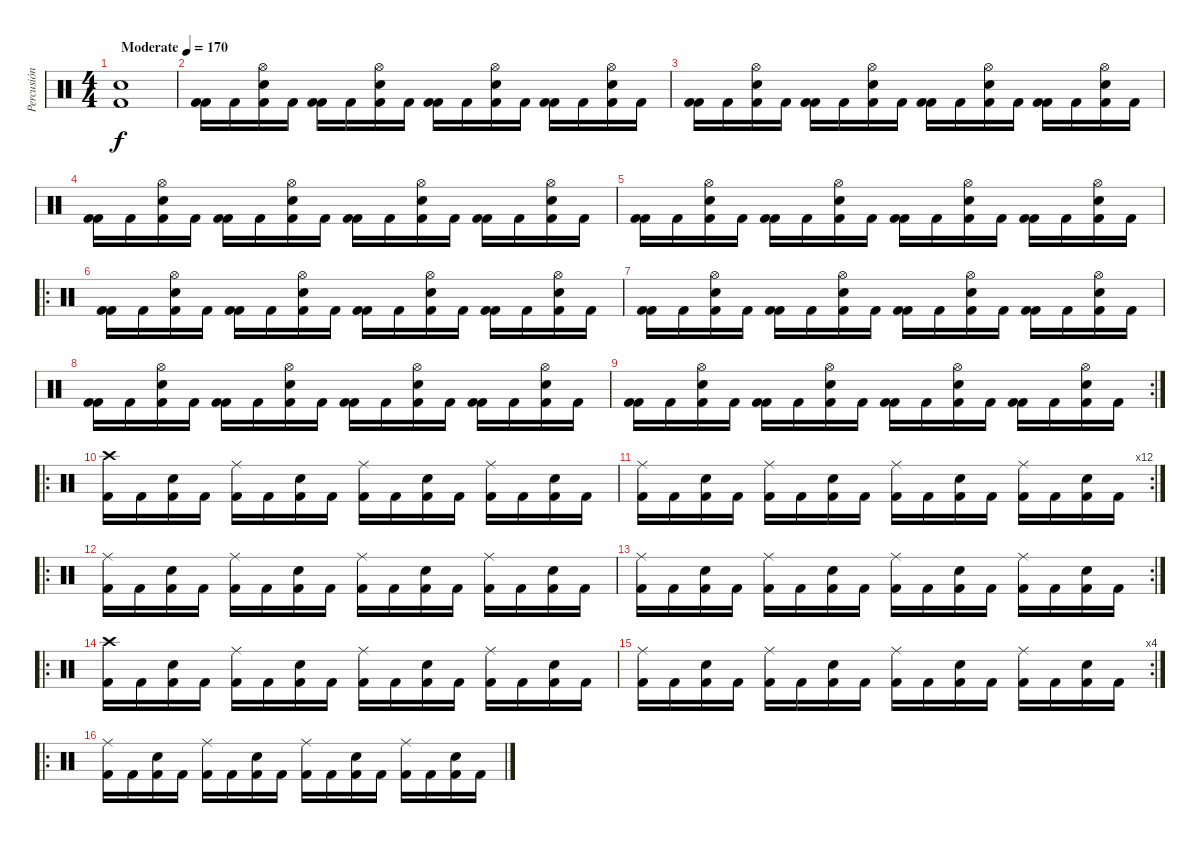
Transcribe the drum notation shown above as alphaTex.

\track ("Percusión" "Percusión") {instrument percussion}
\staff {score}
\articulation defaults
\ts (4 4)
\tempo (170 "Moderate")
\clef neutral
\ks c
("Snare (hit) 2" "Kick (hit) 2").1{dy f} |
("Kick (hit) 2" "Kick (hit) 2").16 "Kick (hit) 2".16 ("Kick (hit) 2" "Snare (hit) 2" "Hi-Hat (open)").16 "Kick (hit) 2".16 ("Kick (hit) 2" "Kick (hit) 2").16 "Kick (hit) 2".16 ("Kick (hit) 2" "Snare (hit) 2" "Hi-Hat (open)").16 "Kick (hit) 2".16 ("Kick (hit) 2" "Kick (hit) 2").16 "Kick (hit) 2".16 ("Kick (hit) 2" "Snare (hit) 2" "Hi-Hat (open)").16 "Kick (hit) 2".16 ("Kick (hit) 2" "Kick (hit) 2").16 "Kick (hit) 2".16 ("Kick (hit) 2" "Snare (hit) 2" "Hi-Hat (open)").16 "Kick (hit) 2".16 |
("Kick (hit) 2" "Kick (hit) 2").16 "Kick (hit) 2".16 ("Kick (hit) 2" "Snare (hit) 2" "Hi-Hat (open)").16 "Kick (hit) 2".16 ("Kick (hit) 2" "Kick (hit) 2").16 "Kick (hit) 2".16 ("Kick (hit) 2" "Snare (hit) 2" "Hi-Hat (open)").16 "Kick (hit) 2".16 ("Kick (hit) 2" "Kick (hit) 2").16 "Kick (hit) 2".16 ("Kick (hit) 2" "Snare (hit) 2" "Hi-Hat (open)").16 "Kick (hit) 2".16 ("Kick (hit) 2" "Kick (hit) 2").16 "Kick (hit) 2".16 ("Kick (hit) 2" "Snare (hit) 2" "Hi-Hat (open)").16 "Kick (hit) 2".16 |
("Kick (hit) 2" "Kick (hit) 2").16 "Kick (hit) 2".16 ("Kick (hit) 2" "Snare (hit) 2" "Hi-Hat (open)").16 "Kick (hit) 2".16 ("Kick (hit) 2" "Kick (hit) 2").16 "Kick (hit) 2".16 ("Kick (hit) 2" "Snare (hit) 2" "Hi-Hat (open)").16 "Kick (hit) 2".16 ("Kick (hit) 2" "Kick (hit) 2").16 "Kick (hit) 2".16 ("Kick (hit) 2" "Snare (hit) 2" "Hi-Hat (open)").16 "Kick (hit) 2".16 ("Kick (hit) 2" "Kick (hit) 2").16 "Kick (hit) 2".16 ("Kick (hit) 2" "Snare (hit) 2" "Hi-Hat (open)").16 "Kick (hit) 2".16 |
("Kick (hit) 2" "Kick (hit) 2").16 "Kick (hit) 2".16 ("Kick (hit) 2" "Snare (hit) 2" "Hi-Hat (open)").16 "Kick (hit) 2".16 ("Kick (hit) 2" "Kick (hit) 2").16 "Kick (hit) 2".16 ("Kick (hit) 2" "Snare (hit) 2" "Hi-Hat (open)").16 "Kick (hit) 2".16 ("Kick (hit) 2" "Kick (hit) 2").16 "Kick (hit) 2".16 ("Kick (hit) 2" "Snare (hit) 2" "Hi-Hat (open)").16 "Kick (hit) 2".16 ("Kick (hit) 2" "Kick (hit) 2").16 "Kick (hit) 2".16 ("Kick (hit) 2" "Snare (hit) 2" "Hi-Hat (open)").16 "Kick (hit) 2".16 |
\ro
("Kick (hit) 2" "Kick (hit) 2").16 "Kick (hit) 2".16 ("Kick (hit) 2" "Snare (hit) 2" "Hi-Hat (open)").16 "Kick (hit) 2".16 ("Kick (hit) 2" "Kick (hit) 2").16 "Kick (hit) 2".16 ("Kick (hit) 2" "Snare (hit) 2" "Hi-Hat (open)").16 "Kick (hit) 2".16 ("Kick (hit) 2" "Kick (hit) 2").16 "Kick (hit) 2".16 ("Kick (hit) 2" "Snare (hit) 2" "Hi-Hat (open)").16 "Kick (hit) 2".16 ("Kick (hit) 2" "Kick (hit) 2").16 "Kick (hit) 2".16 ("Kick (hit) 2" "Snare (hit) 2" "Hi-Hat (open)").16 "Kick (hit) 2".16 |
("Kick (hit) 2" "Kick (hit) 2").16 "Kick (hit) 2".16 ("Kick (hit) 2" "Snare (hit) 2" "Hi-Hat (open)").16 "Kick (hit) 2".16 ("Kick (hit) 2" "Kick (hit) 2").16 "Kick (hit) 2".16 ("Kick (hit) 2" "Snare (hit) 2" "Hi-Hat (open)").16 "Kick (hit) 2".16 ("Kick (hit) 2" "Kick (hit) 2").16 "Kick (hit) 2".16 ("Kick (hit) 2" "Snare (hit) 2" "Hi-Hat (open)").16 "Kick (hit) 2".16 ("Kick (hit) 2" "Kick (hit) 2").16 "Kick (hit) 2".16 ("Kick (hit) 2" "Snare (hit) 2" "Hi-Hat (open)").16 "Kick (hit) 2".16 |
("Kick (hit) 2" "Kick (hit) 2").16 "Kick (hit) 2".16 ("Kick (hit) 2" "Snare (hit) 2" "Hi-Hat (open)").16 "Kick (hit) 2".16 ("Kick (hit) 2" "Kick (hit) 2").16 "Kick (hit) 2".16 ("Kick (hit) 2" "Snare (hit) 2" "Hi-Hat (open)").16 "Kick (hit) 2".16 ("Kick (hit) 2" "Kick (hit) 2").16 "Kick (hit) 2".16 ("Kick (hit) 2" "Snare (hit) 2" "Hi-Hat (open)").16 "Kick (hit) 2".16 ("Kick (hit) 2" "Kick (hit) 2").16 "Kick (hit) 2".16 ("Kick (hit) 2" "Snare (hit) 2" "Hi-Hat (open)").16 "Kick (hit) 2".16 |
\rc 2
("Kick (hit) 2" "Kick (hit) 2").16 "Kick (hit) 2".16 ("Kick (hit) 2" "Snare (hit) 2" "Hi-Hat (open)").16 "Kick (hit) 2".16 ("Kick (hit) 2" "Kick (hit) 2").16 "Kick (hit) 2".16 ("Kick (hit) 2" "Snare (hit) 2" "Hi-Hat (open)").16 "Kick (hit) 2".16 ("Kick (hit) 2" "Kick (hit) 2").16 "Kick (hit) 2".16 ("Kick (hit) 2" "Snare (hit) 2" "Hi-Hat (open)").16 "Kick (hit) 2".16 ("Kick (hit) 2" "Kick (hit) 2").16 "Kick (hit) 2".16 ("Kick (hit) 2" "Snare (hit) 2" "Hi-Hat (open)").16 "Kick (hit) 2".16 |
\ro
("Kick (hit) 2" "Crash high (hit)").16 "Kick (hit) 2".16 ("Kick (hit) 2" "Snare (hit) 2").16 "Kick (hit) 2".16 ("Kick (hit) 2" "Ride (middle)").16 "Kick (hit) 2".16 ("Kick (hit) 2" "Snare (hit) 2").16 "Kick (hit) 2".16 ("Kick (hit) 2" "Ride (middle)").16 "Kick (hit) 2".16 ("Kick (hit) 2" "Snare (hit) 2").16 "Kick (hit) 2".16 ("Kick (hit) 2" "Ride (middle)").16 "Kick (hit) 2".16 ("Kick (hit) 2" "Snare (hit) 2").16 "Kick (hit) 2".16 |
\rc 12
("Kick (hit) 2" "Ride (middle)").16 "Kick (hit) 2".16 ("Kick (hit) 2" "Snare (hit) 2").16 "Kick (hit) 2".16 ("Kick (hit) 2" "Ride (middle)").16 "Kick (hit) 2".16 ("Kick (hit) 2" "Snare (hit) 2").16 "Kick (hit) 2".16 ("Kick (hit) 2" "Ride (middle)").16 "Kick (hit) 2".16 ("Kick (hit) 2" "Snare (hit) 2").16 "Kick (hit) 2".16 ("Kick (hit) 2" "Ride (middle)").16 "Kick (hit) 2".16 ("Kick (hit) 2" "Snare (hit) 2").16 "Kick (hit) 2".16 |
\ro
("Kick (hit) 2" "Ride (middle)").16 "Kick (hit) 2".16 ("Kick (hit) 2" "Snare (hit) 2").16 "Kick (hit) 2".16 ("Kick (hit) 2" "Ride (middle)").16 "Kick (hit) 2".16 ("Kick (hit) 2" "Snare (hit) 2").16 "Kick (hit) 2".16 ("Kick (hit) 2" "Ride (middle)").16 "Kick (hit) 2".16 ("Kick (hit) 2" "Snare (hit) 2").16 "Kick (hit) 2".16 ("Kick (hit) 2" "Ride (middle)").16 "Kick (hit) 2".16 ("Kick (hit) 2" "Snare (hit) 2").16 "Kick (hit) 2".16 |
\rc 2
("Kick (hit) 2" "Ride (middle)").16 "Kick (hit) 2".16 ("Kick (hit) 2" "Snare (hit) 2").16 "Kick (hit) 2".16 ("Kick (hit) 2" "Ride (middle)").16 "Kick (hit) 2".16 ("Kick (hit) 2" "Snare (hit) 2").16 "Kick (hit) 2".16 ("Kick (hit) 2" "Ride (middle)").16 "Kick (hit) 2".16 ("Kick (hit) 2" "Snare (hit) 2").16 "Kick (hit) 2".16 ("Kick (hit) 2" "Ride (middle)").16 "Kick (hit) 2".16 ("Kick (hit) 2" "Snare (hit) 2").16 "Kick (hit) 2".16 |
\ro
("Kick (hit) 2" "Crash high (hit)").16 "Kick (hit) 2".16 ("Kick (hit) 2" "Snare (hit) 2").16 "Kick (hit) 2".16 ("Kick (hit) 2" "Ride (middle)").16 "Kick (hit) 2".16 ("Kick (hit) 2" "Snare (hit) 2").16 "Kick (hit) 2".16 ("Kick (hit) 2" "Ride (middle)").16 "Kick (hit) 2".16 ("Kick (hit) 2" "Snare (hit) 2").16 "Kick (hit) 2".16 ("Kick (hit) 2" "Ride (middle)").16 "Kick (hit) 2".16 ("Kick (hit) 2" "Snare (hit) 2").16 "Kick (hit) 2".16 |
\rc 4
("Kick (hit) 2" "Ride (middle)").16 "Kick (hit) 2".16 ("Kick (hit) 2" "Snare (hit) 2").16 "Kick (hit) 2".16 ("Kick (hit) 2" "Ride (middle)").16 "Kick (hit) 2".16 ("Kick (hit) 2" "Snare (hit) 2").16 "Kick (hit) 2".16 ("Kick (hit) 2" "Ride (middle)").16 "Kick (hit) 2".16 ("Kick (hit) 2" "Snare (hit) 2").16 "Kick (hit) 2".16 ("Kick (hit) 2" "Ride (middle)").16 "Kick (hit) 2".16 ("Kick (hit) 2" "Snare (hit) 2").16 "Kick (hit) 2".16 |
\ro
("Kick (hit) 2" "Ride (middle)").16 "Kick (hit) 2".16 ("Kick (hit) 2" "Snare (hit) 2").16 "Kick (hit) 2".16 ("Kick (hit) 2" "Ride (middle)").16 "Kick (hit) 2".16 ("Kick (hit) 2" "Snare (hit) 2").16 "Kick (hit) 2".16 ("Kick (hit) 2" "Ride (middle)").16 "Kick (hit) 2".16 ("Kick (hit) 2" "Snare (hit) 2").16 "Kick (hit) 2".16 ("Kick (hit) 2" "Ride (middle)").16 "Kick (hit) 2".16 ("Kick (hit) 2" "Snare (hit) 2").16 "Kick (hit) 2".16
